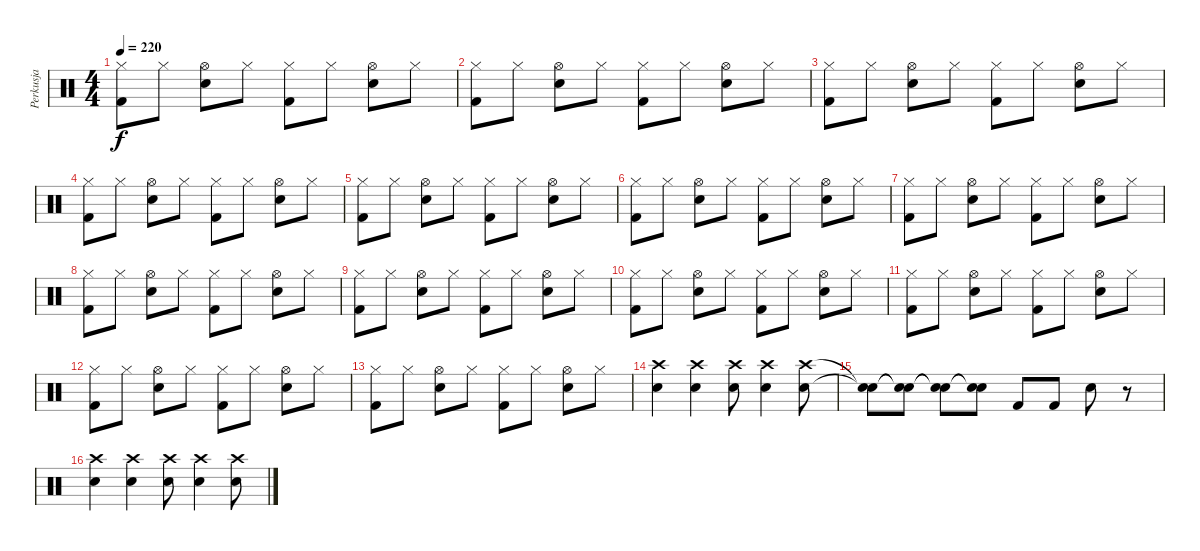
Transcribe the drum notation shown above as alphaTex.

\track ("Perkusja" "Perkusja") {instrument percussion}
\staff {score}
\articulation defaults
\ts (4 4)
\tempo 220
\clef neutral
\ks c
("Hi-Hat (closed)" "Kick (hit) 2").8{dy f} "Hi-Hat (closed)".8 ("Hi-Hat (open)" "Snare (hit) 2").8 "Hi-Hat (closed)".8 ("Hi-Hat (closed)" "Kick (hit) 2").8 "Hi-Hat (closed)".8 ("Hi-Hat (open)" "Snare (hit) 2").8 "Hi-Hat (closed)".8 |
("Hi-Hat (closed)" "Kick (hit) 2").8 "Hi-Hat (closed)".8 ("Hi-Hat (open)" "Snare (hit) 2").8 "Hi-Hat (closed)".8 ("Hi-Hat (closed)" "Kick (hit) 2").8 "Hi-Hat (closed)".8 ("Hi-Hat (open)" "Snare (hit) 2").8 "Hi-Hat (closed)".8 |
("Hi-Hat (closed)" "Kick (hit) 2").8 "Hi-Hat (closed)".8 ("Hi-Hat (open)" "Snare (hit) 2").8 "Hi-Hat (closed)".8 ("Hi-Hat (closed)" "Kick (hit) 2").8 "Hi-Hat (closed)".8 ("Hi-Hat (open)" "Snare (hit) 2").8 "Hi-Hat (closed)".8 |
("Hi-Hat (closed)" "Kick (hit) 2").8 "Hi-Hat (closed)".8 ("Hi-Hat (open)" "Snare (hit) 2").8 "Hi-Hat (closed)".8 ("Hi-Hat (closed)" "Kick (hit) 2").8 "Hi-Hat (closed)".8 ("Hi-Hat (open)" "Snare (hit) 2").8 "Hi-Hat (closed)".8 |
("Hi-Hat (closed)" "Kick (hit) 2").8 "Hi-Hat (closed)".8 ("Hi-Hat (open)" "Snare (hit) 2").8 "Hi-Hat (closed)".8 ("Hi-Hat (closed)" "Kick (hit) 2").8 "Hi-Hat (closed)".8 ("Hi-Hat (open)" "Snare (hit) 2").8 "Hi-Hat (closed)".8 |
("Hi-Hat (closed)" "Kick (hit) 2").8 "Hi-Hat (closed)".8 ("Hi-Hat (open)" "Snare (hit) 2").8 "Hi-Hat (closed)".8 ("Hi-Hat (closed)" "Kick (hit) 2").8 "Hi-Hat (closed)".8 ("Hi-Hat (open)" "Snare (hit) 2").8 "Hi-Hat (closed)".8 |
("Hi-Hat (closed)" "Kick (hit) 2").8 "Hi-Hat (closed)".8 ("Hi-Hat (open)" "Snare (hit) 2").8 "Hi-Hat (closed)".8 ("Hi-Hat (closed)" "Kick (hit) 2").8 "Hi-Hat (closed)".8 ("Hi-Hat (open)" "Snare (hit) 2").8 "Hi-Hat (closed)".8 |
("Hi-Hat (closed)" "Kick (hit) 2").8 "Hi-Hat (closed)".8 ("Hi-Hat (open)" "Snare (hit) 2").8 "Hi-Hat (closed)".8 ("Hi-Hat (closed)" "Kick (hit) 2").8 "Hi-Hat (closed)".8 ("Hi-Hat (open)" "Snare (hit) 2").8 "Hi-Hat (closed)".8 |
("Hi-Hat (closed)" "Kick (hit) 2").8 "Hi-Hat (closed)".8 ("Hi-Hat (open)" "Snare (hit) 2").8 "Hi-Hat (closed)".8 ("Hi-Hat (closed)" "Kick (hit) 2").8 "Hi-Hat (closed)".8 ("Hi-Hat (open)" "Snare (hit) 2").8 "Hi-Hat (closed)".8 |
("Hi-Hat (closed)" "Kick (hit) 2").8 "Hi-Hat (closed)".8 ("Hi-Hat (open)" "Snare (hit) 2").8 "Hi-Hat (closed)".8 ("Hi-Hat (closed)" "Kick (hit) 2").8 "Hi-Hat (closed)".8 ("Hi-Hat (open)" "Snare (hit) 2").8 "Hi-Hat (closed)".8 |
("Hi-Hat (closed)" "Kick (hit) 2").8 "Hi-Hat (closed)".8 ("Hi-Hat (open)" "Snare (hit) 2").8 "Hi-Hat (closed)".8 ("Hi-Hat (closed)" "Kick (hit) 2").8 "Hi-Hat (closed)".8 ("Hi-Hat (open)" "Snare (hit) 2").8 "Hi-Hat (closed)".8 |
("Hi-Hat (closed)" "Kick (hit) 2").8 "Hi-Hat (closed)".8 ("Hi-Hat (open)" "Snare (hit) 2").8 "Hi-Hat (closed)".8 ("Hi-Hat (closed)" "Kick (hit) 2").8 "Hi-Hat (closed)".8 ("Hi-Hat (open)" "Snare (hit) 2").8 "Hi-Hat (closed)".8 |
("Hi-Hat (closed)" "Kick (hit) 2").8 "Hi-Hat (closed)".8 ("Hi-Hat (open)" "Snare (hit) 2").8 "Hi-Hat (closed)".8 ("Hi-Hat (closed)" "Kick (hit) 2").8 "Hi-Hat (closed)".8 ("Hi-Hat (open)" "Snare (hit) 2").8 "Hi-Hat (closed)".8 |
("Crash high (hit)" "Snare (hit) 2").4 ("Crash high (hit)" "Snare (hit) 2").4 ("Crash high (hit)" "Snare (hit) 2").8 ("Crash high (hit)" "Snare (hit) 2").4 ("Crash high (hit)" "Snare (hit) 2").8 |
("Snare (hit)"{t} "Snare (hit)"{t}).8 ("Snare (hit)"{t} "Snare (hit)"{t}).8 ("Snare (hit)"{t} "Snare (hit)"{t}).8 ("Snare (hit)"{t} "Snare (hit)"{t}).8 "Kick (hit) 2".8 "Kick (hit) 2".8 "Snare (hit) 2".8 r.8 |
("Crash high (hit)" "Snare (hit) 2").4 ("Crash high (hit)" "Snare (hit) 2").4 ("Crash high (hit)" "Snare (hit) 2").8 ("Crash high (hit)" "Snare (hit) 2").4 ("Crash high (hit)" "Snare (hit) 2").8
